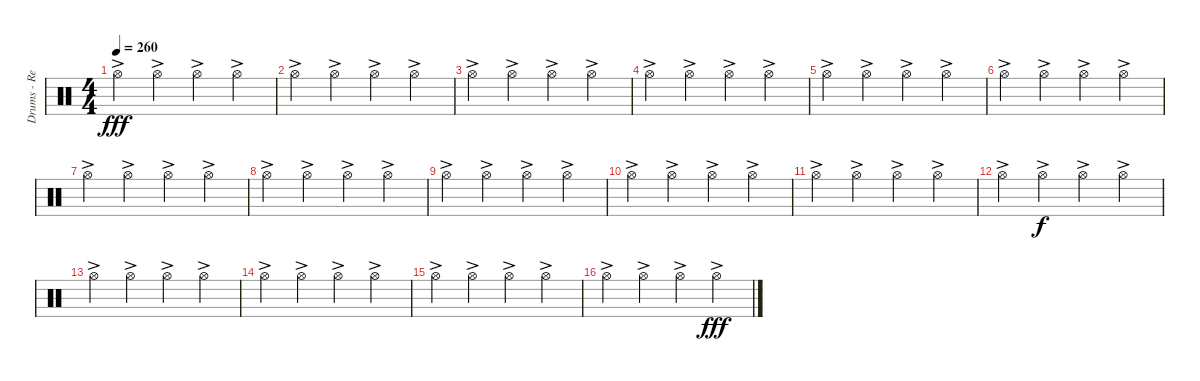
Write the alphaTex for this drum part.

\track ("Drums - Re'a Mochiach" "Drums - Re") {instrument percussion}
\staff {score}
\articulation defaults
\ts (4 4)
\tempo 260
\clef neutral
\ks c "Hi-Hat (open)"{ac}.4{dy fff} "Hi-Hat (open)"{ac}.4 "Hi-Hat (open)"{ac}.4 "Hi-Hat (open)"{ac}.4
|
"Hi-Hat (open)"{ac}.4 "Hi-Hat (open)"{ac}.4 "Hi-Hat (open)"{ac}.4 "Hi-Hat (open)"{ac}.4 |
"Hi-Hat (open)"{ac}.4 "Hi-Hat (open)"{ac}.4 "Hi-Hat (open)"{ac}.4 "Hi-Hat (open)"{ac}.4 |
"Hi-Hat (open)"{ac}.4 "Hi-Hat (open)"{ac}.4 "Hi-Hat (open)"{ac}.4 "Hi-Hat (open)"{ac}.4 |
"Hi-Hat (open)"{ac}.4 "Hi-Hat (open)"{ac}.4 "Hi-Hat (open)"{ac}.4 "Hi-Hat (open)"{ac}.4 |
"Hi-Hat (open)"{ac}.4 "Hi-Hat (open)"{ac}.4 "Hi-Hat (open)"{ac}.4 "Hi-Hat (open)"{ac}.4 |
"Hi-Hat (open)"{ac}.4 "Hi-Hat (open)"{ac}.4 "Hi-Hat (open)"{ac}.4 "Hi-Hat (open)"{ac}.4 |
"Hi-Hat (open)"{ac}.4 "Hi-Hat (open)"{ac}.4 "Hi-Hat (open)"{ac}.4 "Hi-Hat (open)"{ac}.4 |
"Hi-Hat (open)"{ac}.4 "Hi-Hat (open)"{ac}.4 "Hi-Hat (open)"{ac}.4 "Hi-Hat (open)"{ac}.4 |
"Hi-Hat (open)"{ac}.4 "Hi-Hat (open)"{ac}.4 "Hi-Hat (open)"{ac}.4 "Hi-Hat (open)"{ac}.4 |
"Hi-Hat (open)"{ac}.4 "Hi-Hat (open)"{ac}.4 "Hi-Hat (open)"{ac}.4 "Hi-Hat (open)"{ac}.4 |
"Hi-Hat (open)"{ac}.4 "Hi-Hat (open)"{ac}.4{dy f} "Hi-Hat (open)"{ac}.4 "Hi-Hat (open)"{ac}.4 |
"Hi-Hat (open)"{ac}.4 "Hi-Hat (open)"{ac}.4 "Hi-Hat (open)"{ac}.4 "Hi-Hat (open)"{ac}.4 |
"Hi-Hat (open)"{ac}.4 "Hi-Hat (open)"{ac}.4 "Hi-Hat (open)"{ac}.4 "Hi-Hat (open)"{ac}.4 |
"Hi-Hat (open)"{ac}.4 "Hi-Hat (open)"{ac}.4 "Hi-Hat (open)"{ac}.4 "Hi-Hat (open)"{ac}.4 |
"Hi-Hat (open)"{ac}.4 "Hi-Hat (open)"{ac}.4 "Hi-Hat (open)"{ac}.4 "Hi-Hat (open)"{ac}.4{dy fff}
